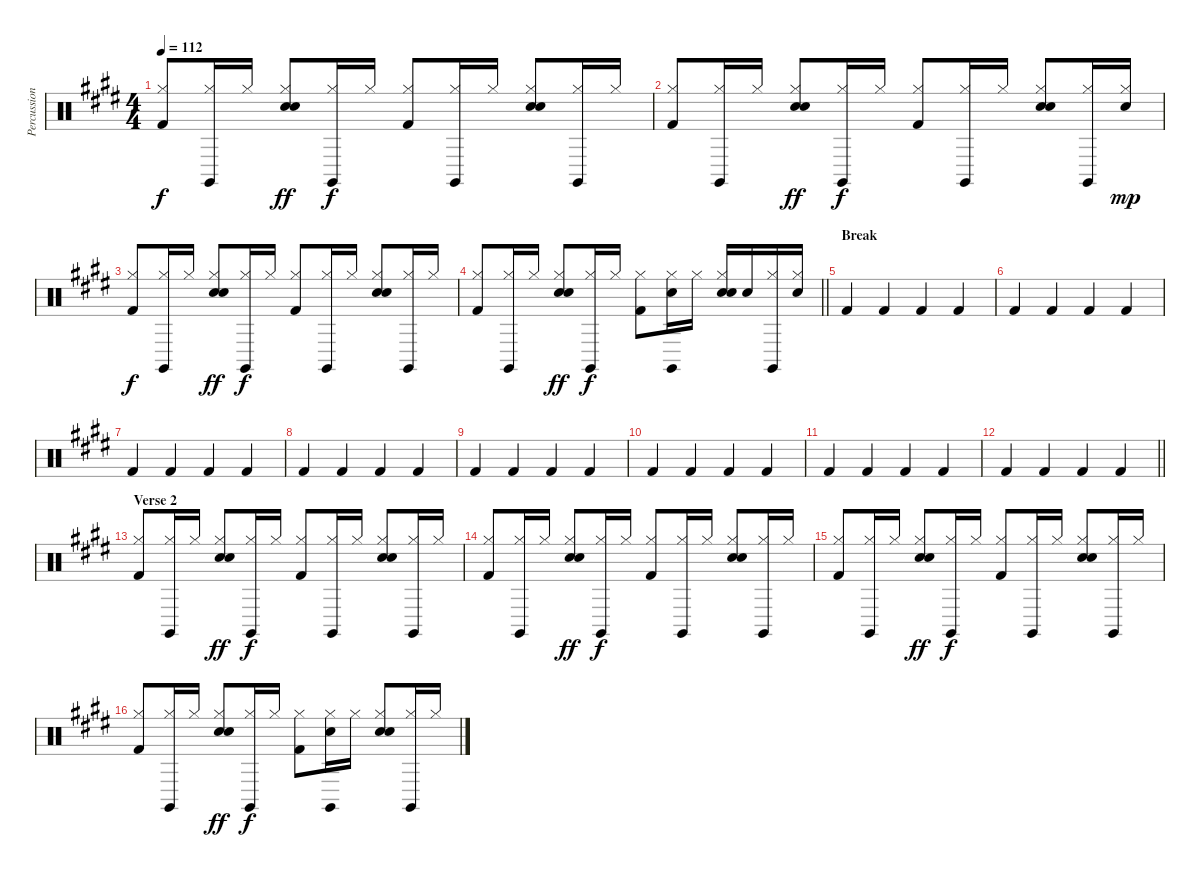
\track ("Percussion" "Percussion") {instrument percussion}
\staff {score}
\articulation defaults
\ts (4 4)
\tempo 112
\clef neutral
\ks e
("Hi-Hat (closed)" "Kick (hit) 2").8{dy f} ("Claves (hit)" "Hi-Hat (closed)").16 "Hi-Hat (closed)".16 ("Hand Clap (hit)" "Hi-Hat (closed)" "Snare (hit) 2").8{dy ff} ("Claves (hit)" "Hi-Hat (closed)").16{dy f} "Hi-Hat (closed)".16 ("Hi-Hat (closed)" "Kick (hit) 2").8 ("Claves (hit)" "Hi-Hat (closed)").16 "Hi-Hat (closed)".16 ("Hand Clap (hit)" "Hi-Hat (closed)" "Snare (hit) 2").8 ("Claves (hit)" "Hi-Hat (closed)").16 "Hi-Hat (closed)".16 |
("Hi-Hat (closed)" "Kick (hit) 2").8 ("Claves (hit)" "Hi-Hat (closed)").16 "Hi-Hat (closed)".16 ("Hand Clap (hit)" "Hi-Hat (closed)" "Snare (hit) 2").8{dy ff} ("Claves (hit)" "Hi-Hat (closed)").16{dy f} "Hi-Hat (closed)".16 ("Hi-Hat (closed)" "Kick (hit) 2").8 ("Claves (hit)" "Hi-Hat (closed)").16 "Hi-Hat (closed)".16 ("Hand Clap (hit)" "Hi-Hat (closed)" "Snare (hit) 2").8 ("Claves (hit)" "Hi-Hat (closed)").16 ("Electric Snare (hit)" "Hi-Hat (closed)").16{dy mp} |
("Hi-Hat (closed)" "Kick (hit) 2").8{dy f} ("Claves (hit)" "Hi-Hat (closed)").16 "Hi-Hat (closed)".16 ("Hand Clap (hit)" "Hi-Hat (closed)" "Snare (hit) 2").8{dy ff} ("Claves (hit)" "Hi-Hat (closed)").16{dy f} "Hi-Hat (closed)".16 ("Hi-Hat (closed)" "Kick (hit) 2").8 ("Claves (hit)" "Hi-Hat (closed)").16 "Hi-Hat (closed)".16 ("Hand Clap (hit)" "Hi-Hat (closed)" "Snare (hit) 2").8 ("Claves (hit)" "Hi-Hat (closed)").16 "Hi-Hat (closed)".16 |
\barLineRight lightlight
("Hi-Hat (closed)" "Kick (hit) 2").8 ("Claves (hit)" "Hi-Hat (closed)").16 "Hi-Hat (closed)".16 ("Hand Clap (hit)" "Hi-Hat (closed)" "Snare (hit) 2").8{dy ff} ("Claves (hit)" "Hi-Hat (closed)").16{dy f} "Hi-Hat (closed)".16 ("Hi-Hat (closed)" "Kick (hit) 2").8 ("Claves (hit)" "Hi-Hat (closed)" "Snare (hit) 2").16 "Hi-Hat (closed)".16 ("Hand Clap (hit)" "Hi-Hat (closed)" "Snare (hit) 2").16 "Snare (hit) 2".16 ("Claves (hit)" "Hi-Hat (closed)").16 ("Hi-Hat (closed)" "Snare (hit) 2").16 |
\section ("" "Break")
"Kick (hit) 2".4 "Kick (hit) 2".4 "Kick (hit) 2".4 "Kick (hit) 2".4 |
"Kick (hit) 2".4 "Kick (hit) 2".4 "Kick (hit) 2".4 "Kick (hit) 2".4 |
"Kick (hit) 2".4 "Kick (hit) 2".4 "Kick (hit) 2".4 "Kick (hit) 2".4 |
"Kick (hit) 2".4 "Kick (hit) 2".4 "Kick (hit) 2".4 "Kick (hit) 2".4 |
"Kick (hit) 2".4 "Kick (hit) 2".4 "Kick (hit) 2".4 "Kick (hit) 2".4 |
"Kick (hit) 2".4 "Kick (hit) 2".4 "Kick (hit) 2".4 "Kick (hit) 2".4 |
"Kick (hit) 2".4 "Kick (hit) 2".4 "Kick (hit) 2".4 "Kick (hit) 2".4 |
\barLineRight lightlight "Kick (hit) 2".4 "Kick (hit) 2".4 "Kick (hit) 2".4 "Kick (hit) 2".4
|
\section ("" "Verse 2")
("Hi-Hat (closed)" "Kick (hit) 2").8 ("Claves (hit)" "Hi-Hat (closed)").16 "Hi-Hat (closed)".16 ("Hand Clap (hit)" "Hi-Hat (closed)" "Snare (hit) 2").8{dy ff} ("Claves (hit)" "Hi-Hat (closed)").16{dy f} "Hi-Hat (closed)".16 ("Hi-Hat (closed)" "Kick (hit) 2").8 ("Claves (hit)" "Hi-Hat (closed)").16 "Hi-Hat (closed)".16 ("Hand Clap (hit)" "Hi-Hat (closed)" "Snare (hit) 2").8 ("Claves (hit)" "Hi-Hat (closed)").16 "Hi-Hat (closed)".16 |
("Hi-Hat (closed)" "Kick (hit) 2").8 ("Claves (hit)" "Hi-Hat (closed)").16 "Hi-Hat (closed)".16 ("Hand Clap (hit)" "Hi-Hat (closed)" "Snare (hit) 2").8{dy ff} ("Claves (hit)" "Hi-Hat (closed)").16{dy f} "Hi-Hat (closed)".16 ("Hi-Hat (closed)" "Kick (hit) 2").8 ("Claves (hit)" "Hi-Hat (closed)").16 "Hi-Hat (closed)".16 ("Hand Clap (hit)" "Hi-Hat (closed)" "Snare (hit) 2").8 ("Claves (hit)" "Hi-Hat (closed)").16 "Hi-Hat (closed)".16 |
("Hi-Hat (closed)" "Kick (hit) 2").8 ("Claves (hit)" "Hi-Hat (closed)").16 "Hi-Hat (closed)".16 ("Hand Clap (hit)" "Hi-Hat (closed)" "Snare (hit) 2").8{dy ff} ("Claves (hit)" "Hi-Hat (closed)").16{dy f} "Hi-Hat (closed)".16 ("Hi-Hat (closed)" "Kick (hit) 2").8 ("Claves (hit)" "Hi-Hat (closed)").16 "Hi-Hat (closed)".16 ("Hand Clap (hit)" "Hi-Hat (closed)" "Snare (hit) 2").8 ("Claves (hit)" "Hi-Hat (closed)").16 "Hi-Hat (closed)".16 |
("Hi-Hat (closed)" "Kick (hit) 2").8 ("Claves (hit)" "Hi-Hat (closed)").16 "Hi-Hat (closed)".16 ("Hand Clap (hit)" "Hi-Hat (closed)" "Snare (hit) 2").8{dy ff} ("Claves (hit)" "Hi-Hat (closed)").16{dy f} "Hi-Hat (closed)".16 ("Hi-Hat (closed)" "Kick (hit) 2").8 ("Claves (hit)" "Hand Clap (hit)" "Hi-Hat (closed)").16 "Hi-Hat (closed)".16 ("Hand Clap (hit)" "Hi-Hat (closed)" "Snare (hit) 2").8 ("Claves (hit)" "Hi-Hat (closed)").16 "Hi-Hat (closed)".16
